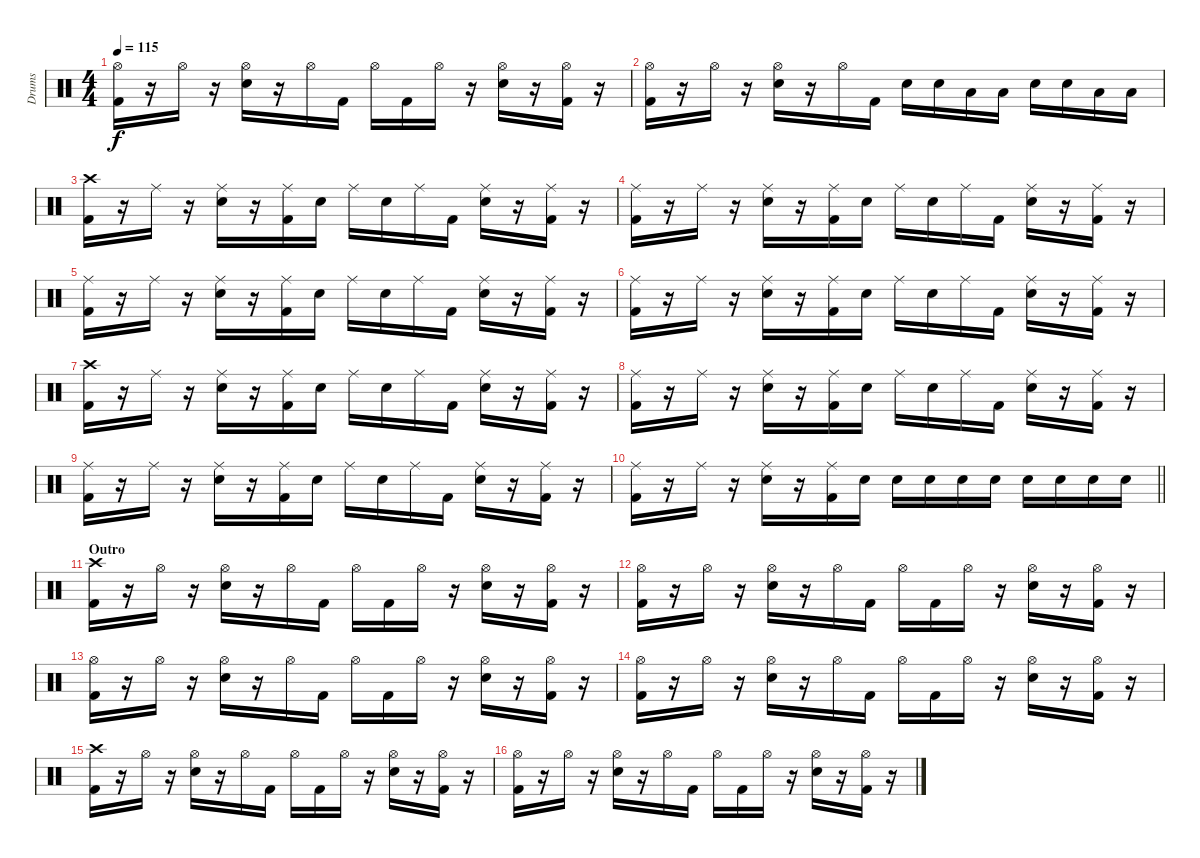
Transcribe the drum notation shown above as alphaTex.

\track ("Drums" "Drums") {instrument percussion}
\staff {score}
\articulation defaults
\ts (4 4)
\tempo 115
\clef neutral
\ks c
("Hi-Hat (open)" "Kick (hit) 2").16{dy f} r.16 "Hi-Hat (open)".16 r.16 ("Hi-Hat (open)" "Snare (hit) 2").16 r.16 "Hi-Hat (open)".16 "Kick (hit) 2".16 "Hi-Hat (open)".16 "Kick (hit) 2".16 "Hi-Hat (open)".16 r.16 ("Hi-Hat (open)" "Snare (hit) 2").16 r.16 ("Hi-Hat (open)" "Kick (hit) 2").16 r.16 |
("Hi-Hat (open)" "Kick (hit) 2").16 r.16 "Hi-Hat (open)".16 r.16 ("Hi-Hat (open)" "Snare (hit) 2").16 r.16 "Hi-Hat (open)".16 "Kick (hit) 2".16 "Snare (hit) 2".16 "Snare (hit) 2".16 "Low Tom (hit)".16 "Low Tom (hit)".16 "Snare (hit) 2".16 "Snare (hit) 2".16 "Low Tom (hit)".16 "Low Tom (hit)".16 |
("Crash high (hit)" "Kick (hit) 2").16 r.16 "Ride (middle)".16 r.16 ("Ride (middle)" "Snare (hit) 2").16 r.16 ("Ride (middle)" "Kick (hit) 2").16 "Snare (hit) 2".16 "Ride (middle)".16 "Snare (hit) 2".16 "Ride (middle)".16 "Kick (hit) 2".16 ("Ride (middle)" "Snare (hit) 2").16 r.16 ("Ride (middle)" "Kick (hit) 2").16 r.16 |
("Ride (middle)" "Kick (hit) 2").16 r.16 "Ride (middle)".16 r.16 ("Ride (middle)" "Snare (hit) 2").16 r.16 ("Ride (middle)" "Kick (hit) 2").16 "Snare (hit) 2".16 "Ride (middle)".16 "Snare (hit) 2".16 "Ride (middle)".16 "Kick (hit) 2".16 ("Ride (middle)" "Snare (hit) 2").16 r.16 ("Ride (middle)" "Kick (hit) 2").16 r.16 |
("Ride (middle)" "Kick (hit) 2").16 r.16 "Ride (middle)".16 r.16 ("Ride (middle)" "Snare (hit) 2").16 r.16 ("Ride (middle)" "Kick (hit) 2").16 "Snare (hit) 2".16 "Ride (middle)".16 "Snare (hit) 2".16 "Ride (middle)".16 "Kick (hit) 2".16 ("Ride (middle)" "Snare (hit) 2").16 r.16 ("Ride (middle)" "Kick (hit) 2").16 r.16 |
("Ride (middle)" "Kick (hit) 2").16 r.16 "Ride (middle)".16 r.16 ("Ride (middle)" "Snare (hit) 2").16 r.16 ("Ride (middle)" "Kick (hit) 2").16 "Snare (hit) 2".16 "Ride (middle)".16 "Snare (hit) 2".16 "Ride (middle)".16 "Kick (hit) 2".16 ("Ride (middle)" "Snare (hit) 2").16 r.16 ("Ride (middle)" "Kick (hit) 2").16 r.16 |
("Crash high (hit)" "Kick (hit) 2").16 r.16 "Ride (middle)".16 r.16 ("Ride (middle)" "Snare (hit) 2").16 r.16 ("Ride (middle)" "Kick (hit) 2").16 "Snare (hit) 2".16 "Ride (middle)".16 "Snare (hit) 2".16 "Ride (middle)".16 "Kick (hit) 2".16 ("Ride (middle)" "Snare (hit) 2").16 r.16 ("Ride (middle)" "Kick (hit) 2").16 r.16 |
("Ride (middle)" "Kick (hit) 2").16 r.16 "Ride (middle)".16 r.16 ("Ride (middle)" "Snare (hit) 2").16 r.16 ("Ride (middle)" "Kick (hit) 2").16 "Snare (hit) 2".16 "Ride (middle)".16 "Snare (hit) 2".16 "Ride (middle)".16 "Kick (hit) 2".16 ("Ride (middle)" "Snare (hit) 2").16 r.16 ("Ride (middle)" "Kick (hit) 2").16 r.16 |
("Ride (middle)" "Kick (hit) 2").16 r.16 "Ride (middle)".16 r.16 ("Ride (middle)" "Snare (hit) 2").16 r.16 ("Ride (middle)" "Kick (hit) 2").16 "Snare (hit) 2".16 "Ride (middle)".16 "Snare (hit) 2".16 "Ride (middle)".16 "Kick (hit) 2".16 ("Ride (middle)" "Snare (hit) 2").16 r.16 ("Ride (middle)" "Kick (hit) 2").16 r.16 |
\barLineRight lightlight
("Ride (middle)" "Kick (hit) 2").16 r.16 "Ride (middle)".16 r.16 ("Ride (middle)" "Snare (hit) 2").16 r.16 ("Ride (middle)" "Kick (hit) 2").16 "Snare (hit) 2".16 "Snare (hit) 2".16 "Snare (hit) 2".16 "Snare (hit) 2".16 "Snare (hit) 2".16 "Snare (hit) 2".16 "Snare (hit) 2".16 "Snare (hit) 2".16 "Snare (hit) 2".16 |
\section ("" "Outro")
("Crash high (hit)" "Kick (hit) 2").16 r.16 "Hi-Hat (open)".16 r.16 ("Hi-Hat (open)" "Snare (hit) 2").16 r.16 "Hi-Hat (open)".16 "Kick (hit) 2".16 "Hi-Hat (open)".16 "Kick (hit) 2".16 "Hi-Hat (open)".16 r.16 ("Hi-Hat (open)" "Snare (hit) 2").16 r.16 ("Hi-Hat (open)" "Kick (hit) 2").16 r.16 |
("Hi-Hat (open)" "Kick (hit) 2").16 r.16 "Hi-Hat (open)".16 r.16 ("Hi-Hat (open)" "Snare (hit) 2").16 r.16 "Hi-Hat (open)".16 "Kick (hit) 2".16 "Hi-Hat (open)".16 "Kick (hit) 2".16 "Hi-Hat (open)".16 r.16 ("Hi-Hat (open)" "Snare (hit) 2").16 r.16 ("Hi-Hat (open)" "Kick (hit) 2").16 r.16 |
("Hi-Hat (open)" "Kick (hit) 2").16 r.16 "Hi-Hat (open)".16 r.16 ("Hi-Hat (open)" "Snare (hit) 2").16 r.16 "Hi-Hat (open)".16 "Kick (hit) 2".16 "Hi-Hat (open)".16 "Kick (hit) 2".16 "Hi-Hat (open)".16 r.16 ("Hi-Hat (open)" "Snare (hit) 2").16 r.16 ("Hi-Hat (open)" "Kick (hit) 2").16 r.16 |
("Hi-Hat (open)" "Kick (hit) 2").16 r.16 "Hi-Hat (open)".16 r.16 ("Hi-Hat (open)" "Snare (hit) 2").16 r.16 "Hi-Hat (open)".16 "Kick (hit) 2".16 "Hi-Hat (open)".16 "Kick (hit) 2".16 "Hi-Hat (open)".16 r.16 ("Hi-Hat (open)" "Snare (hit) 2").16 r.16 ("Hi-Hat (open)" "Kick (hit) 2").16 r.16 |
("Crash high (hit)" "Kick (hit) 2").16 r.16 "Hi-Hat (open)".16 r.16 ("Hi-Hat (open)" "Snare (hit) 2").16 r.16 "Hi-Hat (open)".16 "Kick (hit) 2".16 "Hi-Hat (open)".16 "Kick (hit) 2".16 "Hi-Hat (open)".16 r.16 ("Hi-Hat (open)" "Snare (hit) 2").16 r.16 ("Hi-Hat (open)" "Kick (hit) 2").16 r.16 |
("Hi-Hat (open)" "Kick (hit) 2").16 r.16 "Hi-Hat (open)".16 r.16 ("Hi-Hat (open)" "Snare (hit) 2").16 r.16 "Hi-Hat (open)".16 "Kick (hit) 2".16 "Hi-Hat (open)".16 "Kick (hit) 2".16 "Hi-Hat (open)".16 r.16 ("Hi-Hat (open)" "Snare (hit) 2").16 r.16 ("Hi-Hat (open)" "Kick (hit) 2").16 r.16
